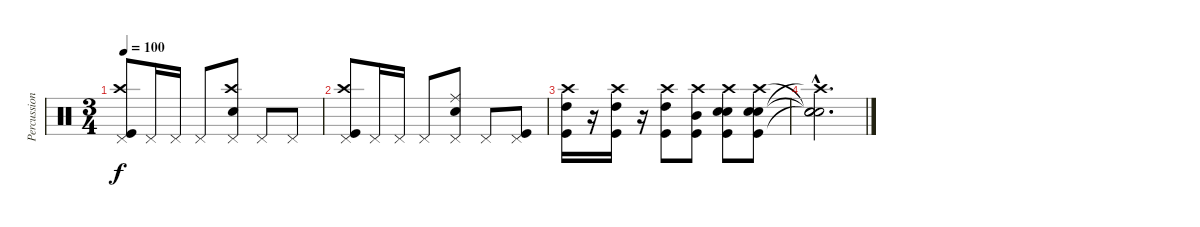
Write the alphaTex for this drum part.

\track ("Percussion" "Percussion") {instrument percussion}
\staff {score}
\articulation defaults
\ts (3 4)
\tempo 100
\clef neutral
\ks c
("Pedal Hi-Hat (hit)" "Crash high (hit)" "Kick (hit)").8{dy f} "Pedal Hi-Hat (hit)".16 "Pedal Hi-Hat (hit)".16 "Pedal Hi-Hat (hit)".8 ("Pedal Hi-Hat (hit)" "Electric Snare (hit)" "Crash high (hit)").8 "Pedal Hi-Hat (hit)".8 "Pedal Hi-Hat (hit)".8 |
("Pedal Hi-Hat (hit)" "Crash high (hit)" "Kick (hit)").8 "Pedal Hi-Hat (hit)".16 "Pedal Hi-Hat (hit)".16 "Pedal Hi-Hat (hit)".8 ("Pedal Hi-Hat (hit)" "Electric Snare (hit)" "Ride (middle)").8 "Pedal Hi-Hat (hit)".8 ("Pedal Hi-Hat (hit)" "Kick (hit)").8 |
("High Tom (hit)" "Crash high (hit)" "Kick (hit)").16 r.16 ("High Tom (hit)" "Crash high (hit)" "Kick (hit)").16 r.16 ("High Tom (hit)" "Crash high (hit)" "Kick (hit)").8 ("Mid Tom (hit)" "Crash high (hit)" "Kick (hit)").8 ("Electric Snare (hit)" "Electric Snare (hit)" "Crash high (hit)" "Kick (hit)").8 ("Electric Snare (hit)" "Electric Snare (hit)" "Crash high (hit)" "Kick (hit)").8 |
("Crash high (hit)"{hac t} "Electric Snare (hit)"{hac t} "Snare (hit)"{hac t} "Snare (hit)"{hac t}).2{d}
